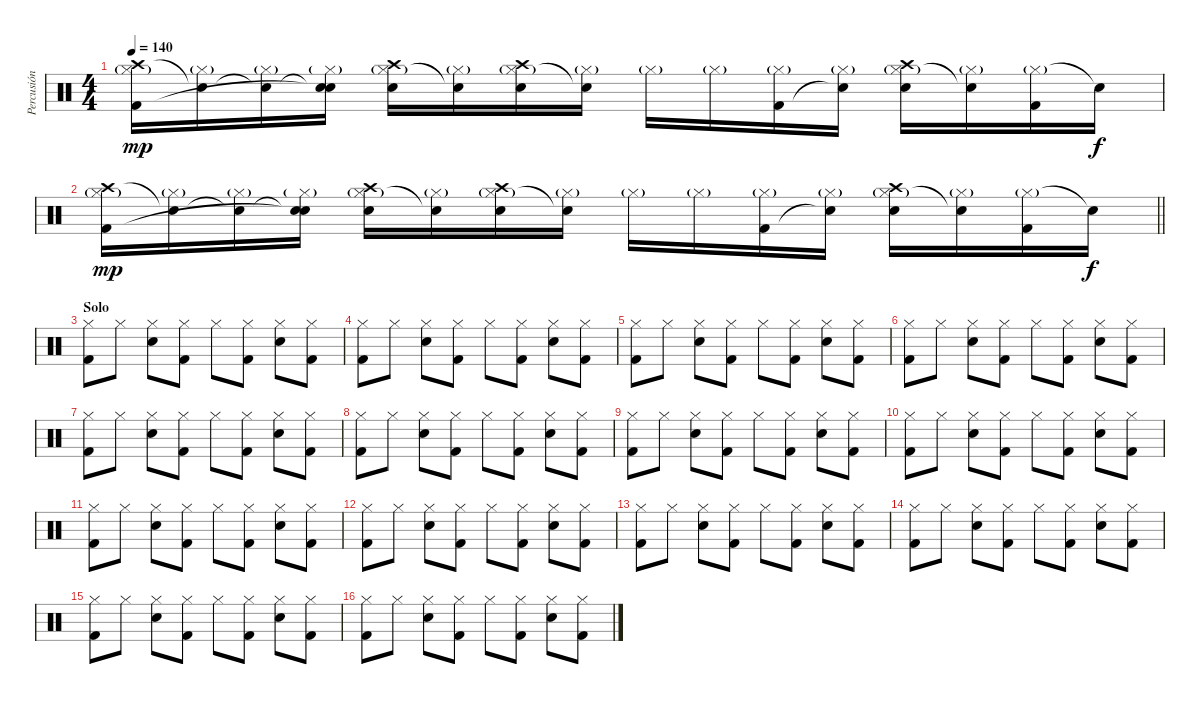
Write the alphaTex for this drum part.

\track ("Percusión" "Percusión") {instrument percussion}
\staff {score}
\articulation defaults
\ts (4 4)
\tempo 140
\clef neutral
\ks c
("Crash high (hit)" "Hi-Hat (closed)"{g} "Kick (hit) 2").16{dy mp} ("Snare (hit)"{t} "Hi-Hat (closed)"{g}).16 ("Snare (hit)"{t} "Hi-Hat (closed)"{g}).16 ("Snare (hit)"{t} "Hi-Hat (closed)"{g} "Snare (hit)"{t}).16 ("Crash high (hit)" "Hi-Hat (closed)"{g} "Electric Snare (hit)").16 ("Hi-Hat (closed)"{g} "Snare (hit)"{t}).16 ("Crash high (hit)" "Hi-Hat (closed)"{g} "Electric Snare (hit)").16 ("Hi-Hat (closed)"{g} "Snare (hit)"{t}).16 "Hi-Hat (closed)"{g}.16 "Hi-Hat (closed)"{g}.16 ("Hi-Hat (closed)"{g} "Kick (hit) 2").16 ("Hi-Hat (closed)"{g} "Snare (hit)"{t}).16 ("Crash high (hit)" "Hi-Hat (closed)"{g} "Electric Snare (hit)").16 ("Hi-Hat (closed)"{g} "Snare (hit)"{t}).16 ("Hi-Hat (closed)"{g} "Kick (hit) 2").16 "Snare (hit)"{t}.16{dy f} |
\barLineRight lightlight
("Crash high (hit)" "Hi-Hat (closed)"{g} "Kick (hit) 2").16{dy mp} ("Snare (hit)"{t} "Hi-Hat (closed)"{g}).16 ("Snare (hit)"{t} "Hi-Hat (closed)"{g}).16 ("Snare (hit)"{t} "Hi-Hat (closed)"{g} "Snare (hit)"{t}).16 ("Crash high (hit)" "Hi-Hat (closed)"{g} "Electric Snare (hit)").16 ("Hi-Hat (closed)"{g} "Snare (hit)"{t}).16 ("Crash high (hit)" "Hi-Hat (closed)"{g} "Electric Snare (hit)").16 ("Hi-Hat (closed)"{g} "Snare (hit)"{t}).16 "Hi-Hat (closed)"{g}.16 "Hi-Hat (closed)"{g}.16 ("Hi-Hat (closed)"{g} "Kick (hit) 2").16 ("Hi-Hat (closed)"{g} "Snare (hit)"{t}).16 ("Crash high (hit)" "Hi-Hat (closed)"{g} "Electric Snare (hit)").16 ("Hi-Hat (closed)"{g} "Snare (hit)"{t}).16 ("Hi-Hat (closed)"{g} "Kick (hit) 2").16 "Snare (hit)"{t}.16{dy f} |
\section ("" "Solo")
("Hi-Hat (closed)" "Kick (hit) 2").8 "Hi-Hat (closed)".8 ("Hi-Hat (closed)" "Electric Snare (hit)").8 ("Hi-Hat (closed)" "Kick (hit) 2").8 "Hi-Hat (closed)".8 ("Hi-Hat (closed)" "Kick (hit) 2").8 ("Hi-Hat (closed)" "Electric Snare (hit)").8 ("Hi-Hat (closed)" "Kick (hit) 2").8 |
("Hi-Hat (closed)" "Kick (hit) 2").8 "Hi-Hat (closed)".8 ("Hi-Hat (closed)" "Electric Snare (hit)").8 ("Hi-Hat (closed)" "Kick (hit) 2").8 "Hi-Hat (closed)".8 ("Hi-Hat (closed)" "Kick (hit) 2").8 ("Hi-Hat (closed)" "Electric Snare (hit)").8 ("Hi-Hat (closed)" "Kick (hit) 2").8 |
("Hi-Hat (closed)" "Kick (hit) 2").8 "Hi-Hat (closed)".8 ("Hi-Hat (closed)" "Electric Snare (hit)").8 ("Hi-Hat (closed)" "Kick (hit) 2").8 "Hi-Hat (closed)".8 ("Hi-Hat (closed)" "Kick (hit) 2").8 ("Hi-Hat (closed)" "Electric Snare (hit)").8 ("Hi-Hat (closed)" "Kick (hit) 2").8 |
("Hi-Hat (closed)" "Kick (hit) 2").8 "Hi-Hat (closed)".8 ("Hi-Hat (closed)" "Electric Snare (hit)").8 ("Hi-Hat (closed)" "Kick (hit) 2").8 "Hi-Hat (closed)".8 ("Hi-Hat (closed)" "Kick (hit) 2").8 ("Hi-Hat (closed)" "Electric Snare (hit)").8 ("Hi-Hat (closed)" "Kick (hit) 2").8 |
("Hi-Hat (closed)" "Kick (hit) 2").8 "Hi-Hat (closed)".8 ("Hi-Hat (closed)" "Electric Snare (hit)").8 ("Hi-Hat (closed)" "Kick (hit) 2").8 "Hi-Hat (closed)".8 ("Hi-Hat (closed)" "Kick (hit) 2").8 ("Hi-Hat (closed)" "Electric Snare (hit)").8 ("Hi-Hat (closed)" "Kick (hit) 2").8 |
("Hi-Hat (closed)" "Kick (hit) 2").8 "Hi-Hat (closed)".8 ("Hi-Hat (closed)" "Electric Snare (hit)").8 ("Hi-Hat (closed)" "Kick (hit) 2").8 "Hi-Hat (closed)".8 ("Hi-Hat (closed)" "Kick (hit) 2").8 ("Hi-Hat (closed)" "Electric Snare (hit)").8 ("Hi-Hat (closed)" "Kick (hit) 2").8 |
("Hi-Hat (closed)" "Kick (hit) 2").8 "Hi-Hat (closed)".8 ("Hi-Hat (closed)" "Electric Snare (hit)").8 ("Hi-Hat (closed)" "Kick (hit) 2").8 "Hi-Hat (closed)".8 ("Hi-Hat (closed)" "Kick (hit) 2").8 ("Hi-Hat (closed)" "Electric Snare (hit)").8 ("Hi-Hat (closed)" "Kick (hit) 2").8 |
("Hi-Hat (closed)" "Kick (hit) 2").8 "Hi-Hat (closed)".8 ("Hi-Hat (closed)" "Electric Snare (hit)").8 ("Hi-Hat (closed)" "Kick (hit) 2").8 "Hi-Hat (closed)".8 ("Hi-Hat (closed)" "Kick (hit) 2").8 ("Hi-Hat (closed)" "Electric Snare (hit)").8 ("Hi-Hat (closed)" "Kick (hit) 2").8 |
("Hi-Hat (closed)" "Kick (hit) 2").8 "Hi-Hat (closed)".8 ("Hi-Hat (closed)" "Electric Snare (hit)").8 ("Hi-Hat (closed)" "Kick (hit) 2").8 "Hi-Hat (closed)".8 ("Hi-Hat (closed)" "Kick (hit) 2").8 ("Hi-Hat (closed)" "Electric Snare (hit)").8 ("Hi-Hat (closed)" "Kick (hit) 2").8 |
("Hi-Hat (closed)" "Kick (hit) 2").8 "Hi-Hat (closed)".8 ("Hi-Hat (closed)" "Electric Snare (hit)").8 ("Hi-Hat (closed)" "Kick (hit) 2").8 "Hi-Hat (closed)".8 ("Hi-Hat (closed)" "Kick (hit) 2").8 ("Hi-Hat (closed)" "Electric Snare (hit)").8 ("Hi-Hat (closed)" "Kick (hit) 2").8 |
("Hi-Hat (closed)" "Kick (hit) 2").8 "Hi-Hat (closed)".8 ("Hi-Hat (closed)" "Electric Snare (hit)").8 ("Hi-Hat (closed)" "Kick (hit) 2").8 "Hi-Hat (closed)".8 ("Hi-Hat (closed)" "Kick (hit) 2").8 ("Hi-Hat (closed)" "Electric Snare (hit)").8 ("Hi-Hat (closed)" "Kick (hit) 2").8 |
("Hi-Hat (closed)" "Kick (hit) 2").8 "Hi-Hat (closed)".8 ("Hi-Hat (closed)" "Electric Snare (hit)").8 ("Hi-Hat (closed)" "Kick (hit) 2").8 "Hi-Hat (closed)".8 ("Hi-Hat (closed)" "Kick (hit) 2").8 ("Hi-Hat (closed)" "Electric Snare (hit)").8 ("Hi-Hat (closed)" "Kick (hit) 2").8 |
("Hi-Hat (closed)" "Kick (hit) 2").8 "Hi-Hat (closed)".8 ("Hi-Hat (closed)" "Electric Snare (hit)").8 ("Hi-Hat (closed)" "Kick (hit) 2").8 "Hi-Hat (closed)".8 ("Hi-Hat (closed)" "Kick (hit) 2").8 ("Hi-Hat (closed)" "Electric Snare (hit)").8 ("Hi-Hat (closed)" "Kick (hit) 2").8 |
("Hi-Hat (closed)" "Kick (hit) 2").8 "Hi-Hat (closed)".8 ("Hi-Hat (closed)" "Electric Snare (hit)").8 ("Hi-Hat (closed)" "Kick (hit) 2").8 "Hi-Hat (closed)".8 ("Hi-Hat (closed)" "Kick (hit) 2").8 ("Hi-Hat (closed)" "Electric Snare (hit)").8 ("Hi-Hat (closed)" "Kick (hit) 2").8
